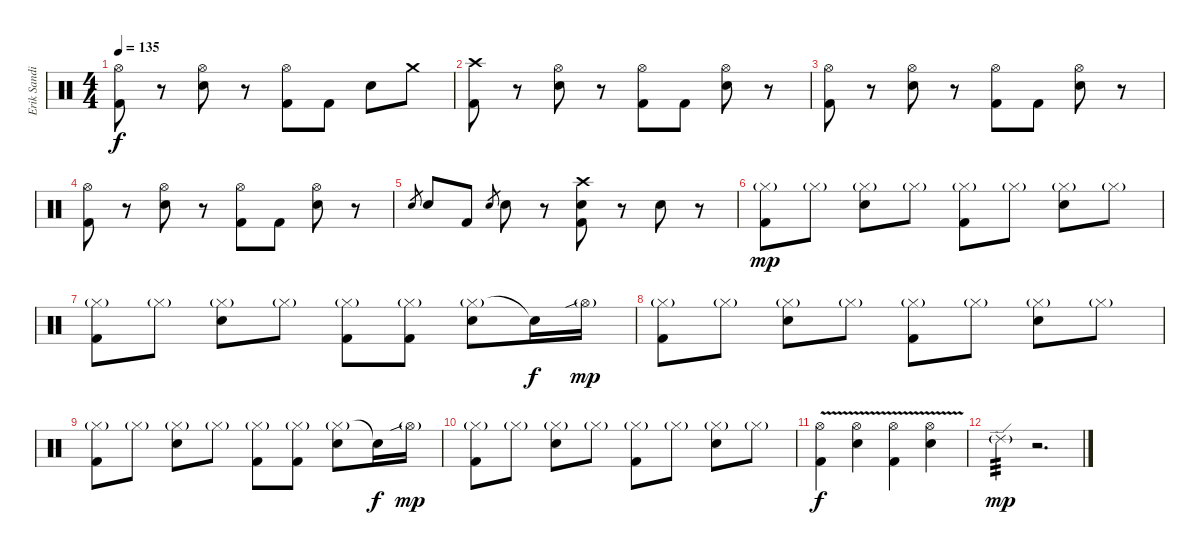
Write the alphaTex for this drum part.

\track ("Erik Sandin" "Erik Sandi") {instrument percussion}
\staff {score}
\articulation defaults
\ts (4 4)
\tempo 135
\clef neutral
\ks c
("Hi-Hat (open)" "Kick (hit) 2").8{dy f} r.8 ("Hi-Hat (open)" "Snare (hit) 2").8 r.8 ("Hi-Hat (open)" "Kick (hit) 2").8 "Kick (hit) 2".8 "Snare (hit) 2".8 "Crash medium (hit)".8 |
("Crash high (hit)" "Kick (hit) 2").8 r.8 ("Hi-Hat (open)" "Snare (hit) 2").8 r.8 ("Hi-Hat (open)" "Kick (hit) 2").8 "Kick (hit) 2".8 ("Hi-Hat (open)" "Snare (hit) 2").8 r.8 |
("Hi-Hat (open)" "Kick (hit) 2").8 r.8 ("Hi-Hat (open)" "Snare (hit) 2").8 r.8 ("Hi-Hat (open)" "Kick (hit) 2").8 "Kick (hit) 2".8 ("Hi-Hat (open)" "Snare (hit) 2").8 r.8 |
("Hi-Hat (open)" "Kick (hit) 2").8 r.8 ("Hi-Hat (open)" "Snare (hit) 2").8 r.8 ("Hi-Hat (open)" "Kick (hit) 2").8 "Kick (hit) 2".8 ("Hi-Hat (open)" "Snare (hit) 2").8 r.8 |
"Snare (hit) 2".8{gr} "Snare (hit) 2".8 "Kick (hit) 2".8 "Snare (hit) 2".8{gr} "Snare (hit) 2".8 r.8 ("Crash high (hit)" "Snare (hit) 2" "Kick (hit) 2").8 r.8 "Snare (hit) 2".8 r.8 |
("Hi-Hat (closed)"{g} "Kick (hit) 2").8{dy mp} "Hi-Hat (closed)"{g}.8 ("Hi-Hat (closed)"{g} "Snare (hit) 2").8 "Hi-Hat (closed)"{g}.8 ("Hi-Hat (closed)"{g} "Kick (hit) 2").8 "Hi-Hat (closed)"{g}.8 ("Hi-Hat (closed)"{g} "Snare (hit) 2").8 "Hi-Hat (closed)"{g}.8 |
("Hi-Hat (closed)"{g} "Kick (hit) 2").8 "Hi-Hat (closed)"{g}.8 ("Hi-Hat (closed)"{g} "Snare (hit) 2").8 "Hi-Hat (closed)"{g}.8 ("Hi-Hat (closed)"{g} "Kick (hit) 2").8 ("Hi-Hat (closed)"{g} "Kick (hit) 2").8 ("Hi-Hat (closed)"{g} "Snare (hit) 2").8 "Snare (hit)"{t}.16{dy f} "Hi-Hat (open)"{sib g}.16{dy mp} |
("Hi-Hat (closed)"{g} "Kick (hit) 2").8 "Hi-Hat (closed)"{g}.8 ("Hi-Hat (closed)"{g} "Snare (hit) 2").8 "Hi-Hat (closed)"{g}.8 ("Hi-Hat (closed)"{g} "Kick (hit) 2").8 "Hi-Hat (closed)"{g}.8 ("Hi-Hat (closed)"{g} "Snare (hit) 2").8 "Hi-Hat (closed)"{g}.8 |
("Hi-Hat (closed)"{g} "Kick (hit) 2").8 "Hi-Hat (closed)"{g}.8 ("Hi-Hat (closed)"{g} "Snare (hit) 2").8 "Hi-Hat (closed)"{g}.8 ("Hi-Hat (closed)"{g} "Kick (hit) 2").8 ("Hi-Hat (closed)"{g} "Kick (hit) 2").8 ("Hi-Hat (closed)"{g} "Snare (hit) 2").8 "Snare (hit)"{t}.16{dy f} "Hi-Hat (open)"{sib g}.16{dy mp} |
("Hi-Hat (closed)"{g} "Kick (hit) 2").8 "Hi-Hat (closed)"{g}.8 ("Hi-Hat (closed)"{g} "Snare (hit) 2").8 "Hi-Hat (closed)"{g}.8 ("Hi-Hat (closed)"{g} "Kick (hit) 2").8 "Hi-Hat (closed)"{g}.8 ("Hi-Hat (closed)"{g} "Snare (hit) 2").8 "Hi-Hat (closed)"{g}.8 |
("Hi-Hat (open)"{v} "Kick (hit) 2").4{dy f} ("Hi-Hat (open)"{v} "Snare (hit) 2").4 ("Hi-Hat (open)"{v} "Kick (hit) 2").4 ("Hi-Hat (open)"{v} "Snare (hit) 2").4 |
"Ride (edge) 2"{g}.4{tp 3 dy mp} r.2{d}
